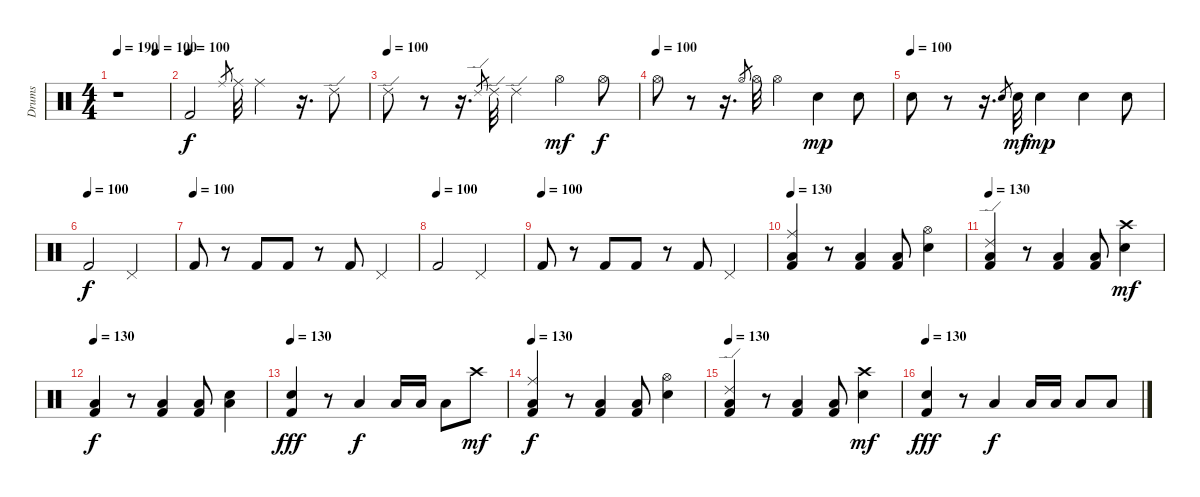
\track ("Drums" "Drums") {instrument percussion}
\staff {score}
\articulation defaults
\ts (4 4)
\tempo 190
\tempo (100 0.75)
\tempo 190
\clef neutral
\ks c
r.1{dy f} |
\tempo (100)
"Kick (hit) 2".2 "Ride (middle)".8{gr} "Ride (middle)".32 "Ride (middle)".4 r.16{d} "Ride (edge) 2".8 |
\tempo (100)
"Ride (edge) 2".8 r.8 r.16{d} "Ride (edge) 2".8{gr} "Ride (edge) 2".32 "Ride (edge) 2".4 "Hi-Hat (open)".4{dy mf} "Hi-Hat (open)".8{dy f} |
\tempo (100)
"Hi-Hat (open)".8 r.8 r.16{d} "Hi-Hat (open)".8{gr} "Hi-Hat (open)".32 "Hi-Hat (open)".4 "Snare (hit) 2".4{dy mp} "Snare (hit) 2".8 |
\tempo (100)
"Snare (hit) 2".8 r.8 r.16{d} "Snare (hit) 2".8{gr} "Snare (hit) 2".32{dy mf} "Snare (hit) 2".4{dy mp} "Snare (hit) 2".4 "Snare (hit) 2".8 |
\tempo (100)
"Kick (hit) 2".2{dy f} "Pedal Hi-Hat (hit)".2 |
\tempo (100)
"Kick (hit) 2".8 r.8 "Kick (hit) 2".8 "Kick (hit) 2".8 r.8 "Kick (hit) 2".8 "Pedal Hi-Hat (hit)".4 |
\tempo (100)
"Kick (hit) 2".2 "Pedal Hi-Hat (hit)".2 |
\tempo (100)
"Kick (hit) 2".8 r.8 "Kick (hit) 2".8 "Kick (hit) 2".8 r.8 "Kick (hit) 2".8 "Pedal Hi-Hat (hit)".4 |
\tempo 130
("Ride (middle)" "Low Floor Tom (hit)" "Kick (hit) 2").4 r.8 ("Low Floor Tom (hit)" "Kick (hit) 2").4 ("Low Floor Tom (hit)" "Kick (hit) 2").8 ("Hi-Hat (open)" "Snare (hit) 2").4 |
\tempo 130
("Ride (edge) 2" "Low Floor Tom (hit)" "Kick (hit) 2").4 r.8 ("Low Floor Tom (hit)" "Kick (hit) 2").4 ("Low Floor Tom (hit)" "Kick (hit) 2").8 ("Crash high (hit)" "Snare (hit) 2").4{dy mf} |
\tempo 130
("Low Tom (hit)" "Kick (hit) 2").4{dy f} r.8 ("Low Tom (hit)" "Kick (hit) 2").4 ("Low Tom (hit)" "Kick (hit) 2").8 ("Low Floor Tom (hit)" "Snare (hit) 2").4 |
\tempo 130
("Snare (hit) 2" "Kick (hit) 2").4{dy fff} r.8 "Low Tom (hit)".4{dy f} "Low Tom (hit)".16 "Low Tom (hit)".16 "Low Floor Tom (hit)".8 "Crash high (hit)".8{dy mf} |
\tempo 130
("Ride (middle)" "Low Floor Tom (hit)" "Kick (hit) 2").4{dy f} r.8 ("Low Floor Tom (hit)" "Kick (hit) 2").4 ("Low Floor Tom (hit)" "Kick (hit) 2").8 ("Hi-Hat (open)" "Snare (hit) 2").4 |
\tempo 130
("Ride (edge) 2" "Low Floor Tom (hit)" "Kick (hit) 2").4 r.8 ("Low Floor Tom (hit)" "Kick (hit) 2").4 ("Low Floor Tom (hit)" "Kick (hit) 2").8 ("Crash high (hit)" "Snare (hit) 2").4{dy mf} |
\tempo 130
("Snare (hit) 2" "Kick (hit) 2").4{dy fff} r.8 "Low Tom (hit)".4{dy f} "Low Tom (hit)".16 "Low Tom (hit)".16 "Low Floor Tom (hit)".8 "Low Floor Tom (hit)".8
